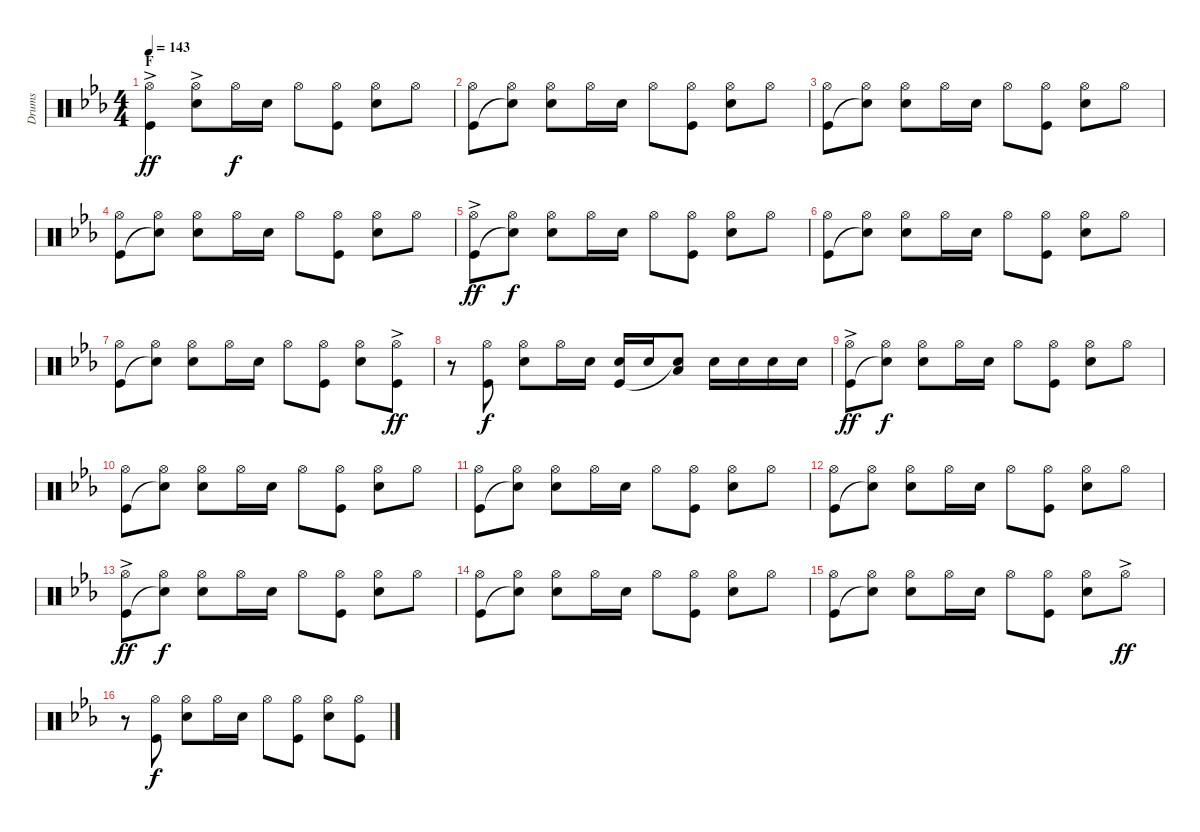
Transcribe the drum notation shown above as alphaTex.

\track ("Drums" "Drums") {instrument percussion}
\staff {score}
\articulation defaults
\ts (4 4)
\section ("" "F")
\tempo 143
\clef neutral
\ks eb
("Hi-Hat (open)"{ac} "Kick (hit)"{ac}).4{dy ff} ("Hi-Hat (open)"{ac} "Snare (hit) 2"{ac}).8 "Hi-Hat (open)".16{dy f} "Snare (hit) 2".16 "Hi-Hat (open)".8 ("Hi-Hat (open)" "Kick (hit)").8 ("Hi-Hat (open)" "Snare (hit) 2").8 "Hi-Hat (open)".8 |
("Hi-Hat (open)" "Kick (hit)").8 ("Hi-Hat (open)" "Snare (hit)"{t}).8 ("Hi-Hat (open)" "Snare (hit) 2").8 "Hi-Hat (open)".16 "Snare (hit) 2".16 "Hi-Hat (open)".8 ("Hi-Hat (open)" "Kick (hit)").8 ("Hi-Hat (open)" "Snare (hit) 2").8 "Hi-Hat (open)".8 |
("Hi-Hat (open)" "Kick (hit)").8 ("Hi-Hat (open)" "Snare (hit)"{t}).8 ("Hi-Hat (open)" "Snare (hit) 2").8 "Hi-Hat (open)".16 "Snare (hit) 2".16 "Hi-Hat (open)".8 ("Hi-Hat (open)" "Kick (hit)").8 ("Hi-Hat (open)" "Snare (hit) 2").8 "Hi-Hat (open)".8 |
("Hi-Hat (open)" "Kick (hit)").8 ("Hi-Hat (open)" "Snare (hit)"{t}).8 ("Hi-Hat (open)" "Snare (hit) 2").8 "Hi-Hat (open)".16 "Snare (hit) 2".16 "Hi-Hat (open)".8 ("Hi-Hat (open)" "Kick (hit)").8 ("Hi-Hat (open)" "Snare (hit) 2").8 "Hi-Hat (open)".8 |
("Hi-Hat (open)"{ac} "Kick (hit)"{ac}).8{dy ff} ("Hi-Hat (open)" "Snare (hit)"{t}).8{dy f} ("Hi-Hat (open)" "Snare (hit) 2").8 "Hi-Hat (open)".16 "Snare (hit) 2".16 "Hi-Hat (open)".8 ("Hi-Hat (open)" "Kick (hit)").8 ("Hi-Hat (open)" "Snare (hit) 2").8 "Hi-Hat (open)".8 |
("Hi-Hat (open)" "Kick (hit)").8 ("Hi-Hat (open)" "Snare (hit)"{t}).8 ("Hi-Hat (open)" "Snare (hit) 2").8 "Hi-Hat (open)".16 "Snare (hit) 2".16 "Hi-Hat (open)".8 ("Hi-Hat (open)" "Kick (hit)").8 ("Hi-Hat (open)" "Snare (hit) 2").8 "Hi-Hat (open)".8 |
("Hi-Hat (open)" "Kick (hit)").8 ("Hi-Hat (open)" "Snare (hit)"{t}).8 ("Hi-Hat (open)" "Snare (hit) 2").8 "Hi-Hat (open)".16 "Snare (hit) 2".16 "Hi-Hat (open)".8 ("Hi-Hat (open)" "Kick (hit)").8 ("Hi-Hat (open)" "Snare (hit) 2").8 ("Hi-Hat (open)"{ac} "Kick (hit)").8{dy ff} |
r.8 ("Hi-Hat (open)" "Kick (hit)").8{dy f} ("Hi-Hat (open)" "Snare (hit) 2").8 "Hi-Hat (open)".16 "Snare (hit) 2".16 ("Snare (hit) 2" "Kick (hit)").16 "Snare (hit) 2".16 ("Low Tom (hit)" "Snare (hit)"{t}).8 "Snare (hit) 2".16 "Snare (hit) 2".16 "Snare (hit) 2".16 "Snare (hit) 2".16 |
("Hi-Hat (open)"{ac} "Kick (hit)"{ac}).8{dy ff} ("Hi-Hat (open)" "Snare (hit)"{t}).8{dy f} ("Hi-Hat (open)" "Snare (hit) 2").8 "Hi-Hat (open)".16 "Snare (hit) 2".16 "Hi-Hat (open)".8 ("Hi-Hat (open)" "Kick (hit)").8 ("Hi-Hat (open)" "Snare (hit) 2").8 "Hi-Hat (open)".8 |
("Hi-Hat (open)" "Kick (hit)").8 ("Hi-Hat (open)" "Snare (hit)"{t}).8 ("Hi-Hat (open)" "Snare (hit) 2").8 "Hi-Hat (open)".16 "Snare (hit) 2".16 "Hi-Hat (open)".8 ("Hi-Hat (open)" "Kick (hit)").8 ("Hi-Hat (open)" "Snare (hit) 2").8 "Hi-Hat (open)".8 |
("Hi-Hat (open)" "Kick (hit)").8 ("Hi-Hat (open)" "Snare (hit)"{t}).8 ("Hi-Hat (open)" "Snare (hit) 2").8 "Hi-Hat (open)".16 "Snare (hit) 2".16 "Hi-Hat (open)".8 ("Hi-Hat (open)" "Kick (hit)").8 ("Hi-Hat (open)" "Snare (hit) 2").8 "Hi-Hat (open)".8 |
("Hi-Hat (open)" "Kick (hit)").8 ("Hi-Hat (open)" "Snare (hit)"{t}).8 ("Hi-Hat (open)" "Snare (hit) 2").8 "Hi-Hat (open)".16 "Snare (hit) 2".16 "Hi-Hat (open)".8 ("Hi-Hat (open)" "Kick (hit)").8 ("Hi-Hat (open)" "Snare (hit) 2").8 "Hi-Hat (open)".8 |
("Hi-Hat (open)"{ac} "Kick (hit)"{ac}).8{dy ff} ("Hi-Hat (open)" "Snare (hit)"{t}).8{dy f} ("Hi-Hat (open)" "Snare (hit) 2").8 "Hi-Hat (open)".16 "Snare (hit) 2".16 "Hi-Hat (open)".8 ("Hi-Hat (open)" "Kick (hit)").8 ("Hi-Hat (open)" "Snare (hit) 2").8 "Hi-Hat (open)".8 |
("Hi-Hat (open)" "Kick (hit)").8 ("Hi-Hat (open)" "Snare (hit)"{t}).8 ("Hi-Hat (open)" "Snare (hit) 2").8 "Hi-Hat (open)".16 "Snare (hit) 2".16 "Hi-Hat (open)".8 ("Hi-Hat (open)" "Kick (hit)").8 ("Hi-Hat (open)" "Snare (hit) 2").8 "Hi-Hat (open)".8 |
("Hi-Hat (open)" "Kick (hit)").8 ("Hi-Hat (open)" "Snare (hit)"{t}).8 ("Hi-Hat (open)" "Snare (hit) 2").8 "Hi-Hat (open)".16 "Snare (hit) 2".16 "Hi-Hat (open)".8 ("Hi-Hat (open)" "Kick (hit)").8 ("Hi-Hat (open)" "Snare (hit) 2").8 "Hi-Hat (open)"{ac}.8{dy ff} |
r.8 ("Hi-Hat (open)" "Kick (hit)").8{dy f} ("Hi-Hat (open)" "Snare (hit) 2").8 "Hi-Hat (open)".16 "Snare (hit) 2".16 "Hi-Hat (open)".8 ("Hi-Hat (open)" "Kick (hit)").8 ("Hi-Hat (open)" "Snare (hit) 2").8 ("Hi-Hat (open)" "Kick (hit)").8
